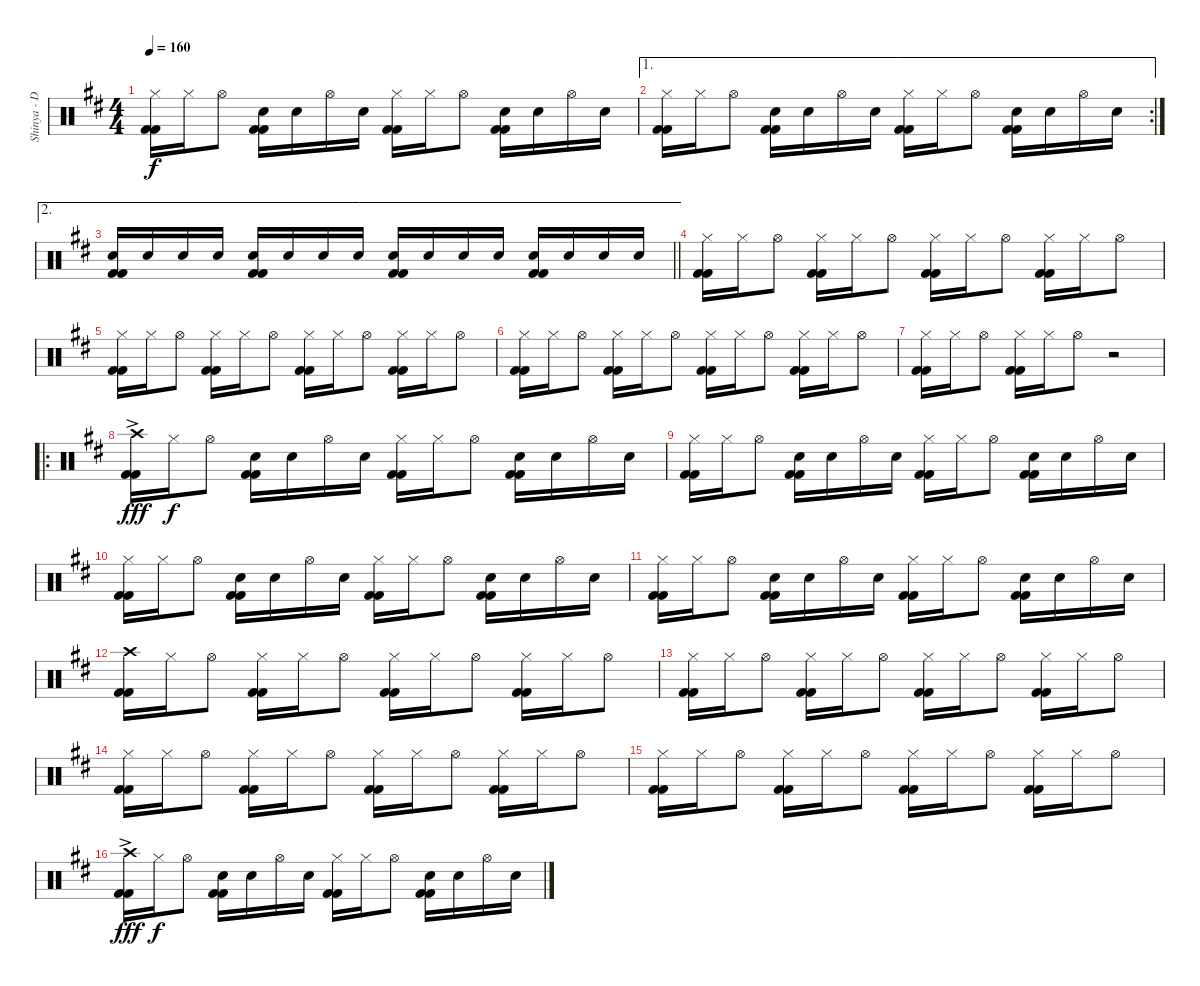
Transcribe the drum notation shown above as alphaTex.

\track ("Shinya - Drums" "Shinya - D") {instrument percussion}
\staff {score}
\articulation defaults
\ts (4 4)
\tempo 160
\clef neutral
\ks d
("Hi-Hat (closed)" "Kick (hit) 2" "Kick (hit) 2").16{dy f} "Hi-Hat (closed)".16 "Hi-Hat (open)".8 ("Snare (hit) 2" "Kick (hit) 2" "Kick (hit) 2").16 "Snare (hit) 2".16 "Hi-Hat (open)".16 "Snare (hit) 2".16 ("Hi-Hat (closed)" "Kick (hit) 2" "Kick (hit) 2").16 "Hi-Hat (closed)".16 "Hi-Hat (open)".8 ("Snare (hit) 2" "Kick (hit) 2" "Kick (hit) 2").16 "Snare (hit) 2".16 "Hi-Hat (open)".16 "Snare (hit) 2".16 |
\ae 1
\rc 2
("Hi-Hat (closed)" "Kick (hit) 2" "Kick (hit) 2").16 "Hi-Hat (closed)".16 "Hi-Hat (open)".8 ("Snare (hit) 2" "Kick (hit) 2" "Kick (hit) 2").16 "Snare (hit) 2".16 "Hi-Hat (open)".16 "Snare (hit) 2".16 ("Hi-Hat (closed)" "Kick (hit) 2" "Kick (hit) 2").16 "Hi-Hat (closed)".16 "Hi-Hat (open)".8 ("Snare (hit) 2" "Kick (hit) 2" "Kick (hit) 2").16 "Snare (hit) 2".16 "Hi-Hat (open)".16 "Snare (hit) 2".16 |
\ae 2
\barLineRight lightlight
("Snare (hit) 2" "Kick (hit) 2" "Kick (hit) 2").16 "Snare (hit) 2".16 "Snare (hit) 2".16 "Snare (hit) 2".16 ("Snare (hit) 2" "Kick (hit) 2" "Kick (hit) 2").16 "Snare (hit) 2".16 "Snare (hit) 2".16 "Snare (hit) 2".16 ("Snare (hit) 2" "Kick (hit) 2" "Kick (hit) 2").16 "Snare (hit) 2".16 "Snare (hit) 2".16 "Snare (hit) 2".16 ("Snare (hit) 2" "Kick (hit) 2" "Kick (hit) 2").16 "Snare (hit) 2".16 "Snare (hit) 2".16 "Snare (hit) 2".16 |
("Hi-Hat (closed)" "Kick (hit) 2" "Kick (hit) 2").16 "Hi-Hat (closed)".16 "Hi-Hat (open)".8 ("Hi-Hat (closed)" "Kick (hit) 2" "Kick (hit) 2").16 "Hi-Hat (closed)".16 "Hi-Hat (open)".8 ("Hi-Hat (closed)" "Kick (hit) 2" "Kick (hit) 2").16 "Hi-Hat (closed)".16 "Hi-Hat (open)".8 ("Hi-Hat (closed)" "Kick (hit) 2" "Kick (hit) 2").16 "Hi-Hat (closed)".16 "Hi-Hat (open)".8 |
("Hi-Hat (closed)" "Kick (hit) 2" "Kick (hit) 2").16 "Hi-Hat (closed)".16 "Hi-Hat (open)".8 ("Hi-Hat (closed)" "Kick (hit) 2" "Kick (hit) 2").16 "Hi-Hat (closed)".16 "Hi-Hat (open)".8 ("Hi-Hat (closed)" "Kick (hit) 2" "Kick (hit) 2").16 "Hi-Hat (closed)".16 "Hi-Hat (open)".8 ("Hi-Hat (closed)" "Kick (hit) 2" "Kick (hit) 2").16 "Hi-Hat (closed)".16 "Hi-Hat (open)".8 |
("Hi-Hat (closed)" "Kick (hit) 2" "Kick (hit) 2").16 "Hi-Hat (closed)".16 "Hi-Hat (open)".8 ("Hi-Hat (closed)" "Kick (hit) 2" "Kick (hit) 2").16 "Hi-Hat (closed)".16 "Hi-Hat (open)".8 ("Hi-Hat (closed)" "Kick (hit) 2" "Kick (hit) 2").16 "Hi-Hat (closed)".16 "Hi-Hat (open)".8 ("Hi-Hat (closed)" "Kick (hit) 2" "Kick (hit) 2").16 "Hi-Hat (closed)".16 "Hi-Hat (open)".8 |
("Hi-Hat (closed)" "Kick (hit) 2" "Kick (hit) 2").16 "Hi-Hat (closed)".16 "Hi-Hat (open)".8 ("Hi-Hat (closed)" "Kick (hit) 2" "Kick (hit) 2").16 "Hi-Hat (closed)".16 "Hi-Hat (open)".8 r.2 |
\ro
("Crash high (hit)"{ac} "Kick (hit) 2" "Kick (hit) 2").16{dy fff} "Hi-Hat (closed)".16{dy f} "Hi-Hat (open)".8 ("Snare (hit) 2" "Kick (hit) 2" "Kick (hit) 2").16 "Snare (hit) 2".16 "Hi-Hat (open)".16 "Snare (hit) 2".16 ("Hi-Hat (closed)" "Kick (hit) 2" "Kick (hit) 2").16 "Hi-Hat (closed)".16 "Hi-Hat (open)".8 ("Snare (hit) 2" "Kick (hit) 2" "Kick (hit) 2").16 "Snare (hit) 2".16 "Hi-Hat (open)".16 "Snare (hit) 2".16 |
("Hi-Hat (closed)" "Kick (hit) 2" "Kick (hit) 2").16 "Hi-Hat (closed)".16 "Hi-Hat (open)".8 ("Snare (hit) 2" "Kick (hit) 2" "Kick (hit) 2").16 "Snare (hit) 2".16 "Hi-Hat (open)".16 "Snare (hit) 2".16 ("Hi-Hat (closed)" "Kick (hit) 2" "Kick (hit) 2").16 "Hi-Hat (closed)".16 "Hi-Hat (open)".8 ("Snare (hit) 2" "Kick (hit) 2" "Kick (hit) 2").16 "Snare (hit) 2".16 "Hi-Hat (open)".16 "Snare (hit) 2".16 |
("Hi-Hat (closed)" "Kick (hit) 2" "Kick (hit) 2").16 "Hi-Hat (closed)".16 "Hi-Hat (open)".8 ("Snare (hit) 2" "Kick (hit) 2" "Kick (hit) 2").16 "Snare (hit) 2".16 "Hi-Hat (open)".16 "Snare (hit) 2".16 ("Hi-Hat (closed)" "Kick (hit) 2" "Kick (hit) 2").16 "Hi-Hat (closed)".16 "Hi-Hat (open)".8 ("Snare (hit) 2" "Kick (hit) 2" "Kick (hit) 2").16 "Snare (hit) 2".16 "Hi-Hat (open)".16 "Snare (hit) 2".16 |
("Hi-Hat (closed)" "Kick (hit) 2" "Kick (hit) 2").16 "Hi-Hat (closed)".16 "Hi-Hat (open)".8 ("Snare (hit) 2" "Kick (hit) 2" "Kick (hit) 2").16 "Snare (hit) 2".16 "Hi-Hat (open)".16 "Snare (hit) 2".16 ("Hi-Hat (closed)" "Kick (hit) 2" "Kick (hit) 2").16 "Hi-Hat (closed)".16 "Hi-Hat (open)".8 ("Snare (hit) 2" "Kick (hit) 2" "Kick (hit) 2").16 "Snare (hit) 2".16 "Hi-Hat (open)".16 "Snare (hit) 2".16 |
("Crash high (hit)" "Kick (hit) 2" "Kick (hit) 2").16 "Hi-Hat (closed)".16 "Hi-Hat (open)".8 ("Hi-Hat (closed)" "Kick (hit) 2" "Kick (hit) 2").16 "Hi-Hat (closed)".16 "Hi-Hat (open)".8 ("Hi-Hat (closed)" "Kick (hit) 2" "Kick (hit) 2").16 "Hi-Hat (closed)".16 "Hi-Hat (open)".8 ("Hi-Hat (closed)" "Kick (hit) 2" "Kick (hit) 2").16 "Hi-Hat (closed)".16 "Hi-Hat (open)".8 |
("Hi-Hat (closed)" "Kick (hit) 2" "Kick (hit) 2").16 "Hi-Hat (closed)".16 "Hi-Hat (open)".8 ("Hi-Hat (closed)" "Kick (hit) 2" "Kick (hit) 2").16 "Hi-Hat (closed)".16 "Hi-Hat (open)".8 ("Hi-Hat (closed)" "Kick (hit) 2" "Kick (hit) 2").16 "Hi-Hat (closed)".16 "Hi-Hat (open)".8 ("Hi-Hat (closed)" "Kick (hit) 2" "Kick (hit) 2").16 "Hi-Hat (closed)".16 "Hi-Hat (open)".8 |
("Hi-Hat (closed)" "Kick (hit) 2" "Kick (hit) 2").16 "Hi-Hat (closed)".16 "Hi-Hat (open)".8 ("Hi-Hat (closed)" "Kick (hit) 2" "Kick (hit) 2").16 "Hi-Hat (closed)".16 "Hi-Hat (open)".8 ("Hi-Hat (closed)" "Kick (hit) 2" "Kick (hit) 2").16 "Hi-Hat (closed)".16 "Hi-Hat (open)".8 ("Hi-Hat (closed)" "Kick (hit) 2" "Kick (hit) 2").16 "Hi-Hat (closed)".16 "Hi-Hat (open)".8 |
("Hi-Hat (closed)" "Kick (hit) 2" "Kick (hit) 2").16 "Hi-Hat (closed)".16 "Hi-Hat (open)".8 ("Hi-Hat (closed)" "Kick (hit) 2" "Kick (hit) 2").16 "Hi-Hat (closed)".16 "Hi-Hat (open)".8 ("Hi-Hat (closed)" "Kick (hit) 2" "Kick (hit) 2").16 "Hi-Hat (closed)".16 "Hi-Hat (open)".8 ("Hi-Hat (closed)" "Kick (hit) 2" "Kick (hit) 2").16 "Hi-Hat (closed)".16 "Hi-Hat (open)".8 |
("Crash high (hit)"{ac} "Kick (hit) 2" "Kick (hit) 2").16{dy fff} "Hi-Hat (closed)".16{dy f} "Hi-Hat (open)".8 ("Snare (hit) 2" "Kick (hit) 2" "Kick (hit) 2").16 "Snare (hit) 2".16 "Hi-Hat (open)".16 "Snare (hit) 2".16 ("Hi-Hat (closed)" "Kick (hit) 2" "Kick (hit) 2").16 "Hi-Hat (closed)".16 "Hi-Hat (open)".8 ("Snare (hit) 2" "Kick (hit) 2" "Kick (hit) 2").16 "Snare (hit) 2".16 "Hi-Hat (open)".16 "Snare (hit) 2".16
